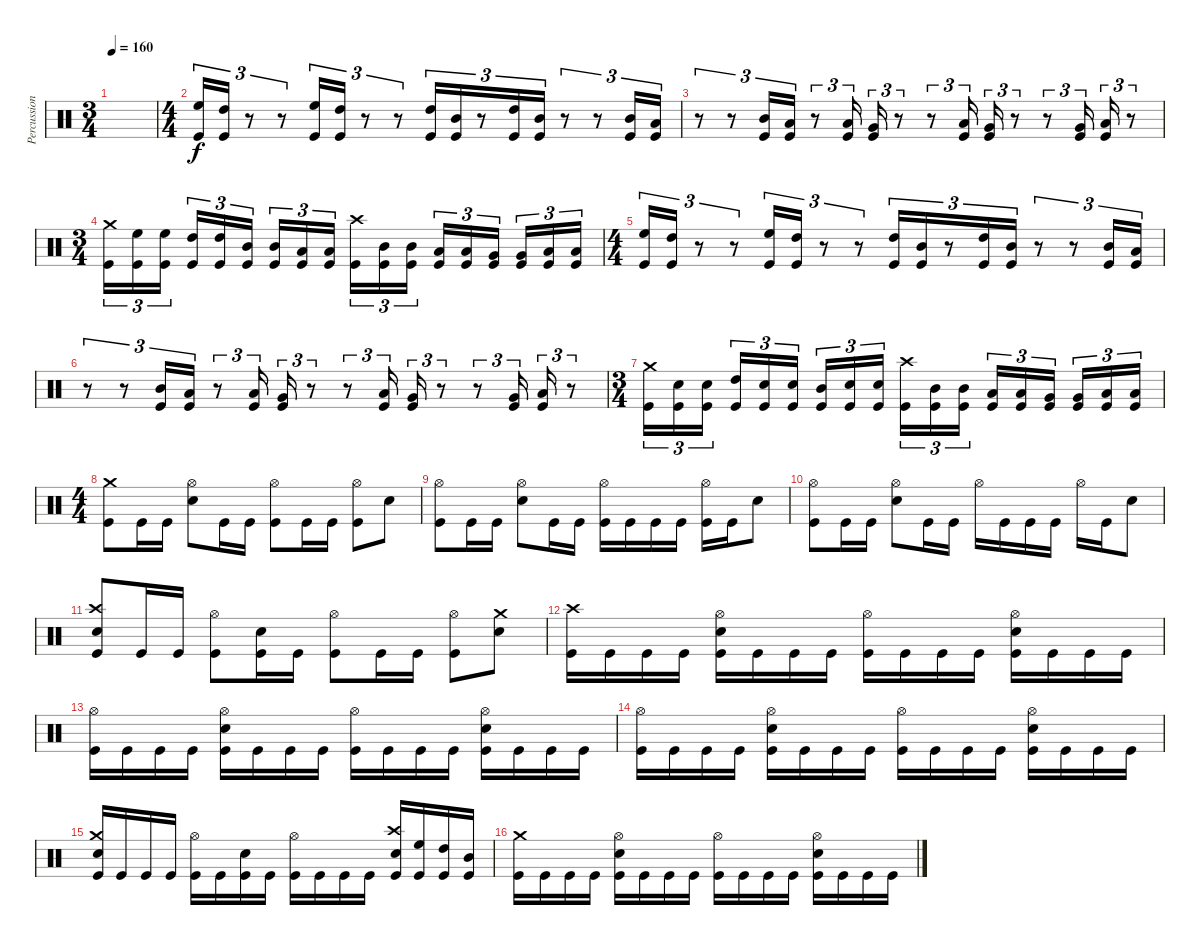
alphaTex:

\track ("Percussion" "Percussion") {instrument percussion}
\staff {score}
\articulation defaults
\ts (3 4)
\tempo 160
\clef neutral
\ks c
|
\ts (4 4)
("High Floor Tom (hit)" "Kick (hit)").16{tu (3 2)} ("High Tom (hit)" "Kick (hit)").16{tu (3 2)} r.8{tu (3 2)} r.8{tu (3 2)} ("High Floor Tom (hit)" "Kick (hit)").16{tu (3 2)} ("High Tom (hit)" "Kick (hit)").16{tu (3 2)} r.8{tu (3 2)} r.8{tu (3 2)} ("High Tom (hit)" "Kick (hit)").16{tu (3 2)} ("Mid Tom (hit)" "Kick (hit)").16{tu (3 2)} r.8{tu (3 2)} ("High Tom (hit)" "Kick (hit)").16{tu (3 2)} ("Mid Tom (hit)" "Kick (hit)").16{tu (3 2)} r.8{tu (3 2)} r.8{tu (3 2)} ("Mid Tom (hit)" "Kick (hit)").16{tu (3 2)} ("Low Tom (hit)" "Kick (hit)").16{tu (3 2)} |
r.8{tu (3 2)} r.8{tu (3 2)} ("Mid Tom (hit)" "Kick (hit)").16{tu (3 2)} ("Low Tom (hit)" "Kick (hit)").16{tu (3 2)} r.8{tu (3 2)} ("Low Tom (hit)" "Kick (hit)").16{tu (3 2)} ("Very Low Tom (hit)" "Kick (hit)").16{tu (3 2)} r.8{tu (3 2)} r.8{tu (3 2)} ("Low Tom (hit)" "Kick (hit)").16{tu (3 2)} ("Very Low Tom (hit)" "Kick (hit)").16{tu (3 2)} r.8{tu (3 2)} r.8{tu (3 2)} ("Very Low Tom (hit)" "Kick (hit)").16{tu (3 2)} ("Low Floor Tom (hit)" "Kick (hit)").16{tu (3 2)} r.8{tu (3 2)} |
\ts (3 4)
("Crash medium (hit)" "Kick (hit)").16{tu (3 2)} ("High Floor Tom (hit)" "Kick (hit)").16{tu (3 2)} ("High Floor Tom (hit)" "Kick (hit)").16{tu (3 2) beam splitsecondary} ("High Tom (hit)" "Kick (hit)").16{tu (3 2)} ("High Tom (hit)" "Kick (hit)").16{tu (3 2)} ("Mid Tom (hit)" "Kick (hit)").16{tu (3 2)} ("Mid Tom (hit)" "Kick (hit)").16{tu (3 2)} ("Low Tom (hit)" "Kick (hit)").16{tu (3 2)} ("Low Tom (hit)" "Kick (hit)").16{tu (3 2) beam splitsecondary} ("Crash high (hit)" "Kick (hit)").16{tu (3 2)} ("Mid Tom (hit)" "Kick (hit)").16{tu (3 2)} ("Mid Tom (hit)" "Kick (hit)").16{tu (3 2)} ("Low Tom (hit)" "Kick (hit)").16{tu (3 2)} ("Low Tom (hit)" "Kick (hit)").16{tu (3 2)} ("Very Low Tom (hit)" "Kick (hit)").16{tu (3 2) beam splitsecondary} ("Very Low Tom (hit)" "Kick (hit)").16{tu (3 2)} ("Low Floor Tom (hit)" "Kick (hit)").16{tu (3 2)} ("Low Floor Tom (hit)" "Kick (hit)").16{tu (3 2)} |
\ts (4 4)
("High Floor Tom (hit)" "Kick (hit)").16{tu (3 2)} ("High Tom (hit)" "Kick (hit)").16{tu (3 2)} r.8{tu (3 2)} r.8{tu (3 2)} ("High Floor Tom (hit)" "Kick (hit)").16{tu (3 2)} ("High Tom (hit)" "Kick (hit)").16{tu (3 2)} r.8{tu (3 2)} r.8{tu (3 2)} ("High Tom (hit)" "Kick (hit)").16{tu (3 2)} ("Mid Tom (hit)" "Kick (hit)").16{tu (3 2)} r.8{tu (3 2)} ("High Tom (hit)" "Kick (hit)").16{tu (3 2)} ("Mid Tom (hit)" "Kick (hit)").16{tu (3 2)} r.8{tu (3 2)} r.8{tu (3 2)} ("Mid Tom (hit)" "Kick (hit)").16{tu (3 2)} ("Low Tom (hit)" "Kick (hit)").16{tu (3 2)} |
r.8{tu (3 2)} r.8{tu (3 2)} ("Mid Tom (hit)" "Kick (hit)").16{tu (3 2)} ("Low Tom (hit)" "Kick (hit)").16{tu (3 2)} r.8{tu (3 2)} ("Low Tom (hit)" "Kick (hit)").16{tu (3 2)} ("Very Low Tom (hit)" "Kick (hit)").16{tu (3 2)} r.8{tu (3 2)} r.8{tu (3 2)} ("Low Tom (hit)" "Kick (hit)").16{tu (3 2)} ("Very Low Tom (hit)" "Kick (hit)").16{tu (3 2)} r.8{tu (3 2)} r.8{tu (3 2)} ("Very Low Tom (hit)" "Kick (hit)").16{tu (3 2)} ("Low Floor Tom (hit)" "Kick (hit)").16{tu (3 2)} r.8{tu (3 2)} |
\ts (3 4)
("Crash medium (hit)" "Kick (hit)").16{tu (3 2)} ("Snare (hit) 2" "Kick (hit)").16{tu (3 2)} ("Snare (hit) 2" "Kick (hit)").16{tu (3 2) beam splitsecondary} ("High Tom (hit)" "Kick (hit)").16{tu (3 2)} ("Snare (hit) 2" "Kick (hit)").16{tu (3 2)} ("Snare (hit) 2" "Kick (hit)").16{tu (3 2)} ("Mid Tom (hit)" "Kick (hit)").16{tu (3 2)} ("Snare (hit) 2" "Kick (hit)").16{tu (3 2)} ("Snare (hit) 2" "Kick (hit)").16{tu (3 2) beam splitsecondary} ("Crash high (hit)" "Kick (hit)").16{tu (3 2)} ("Mid Tom (hit)" "Kick (hit)").16{tu (3 2)} ("Mid Tom (hit)" "Kick (hit)").16{tu (3 2)} ("Low Tom (hit)" "Kick (hit)").16{tu (3 2)} ("Low Tom (hit)" "Kick (hit)").16{tu (3 2)} ("Very Low Tom (hit)" "Kick (hit)").16{tu (3 2) beam splitsecondary} ("Very Low Tom (hit)" "Kick (hit)").16{tu (3 2)} ("Low Floor Tom (hit)" "Kick (hit)").16{tu (3 2)} ("Low Floor Tom (hit)" "Kick (hit)").16{tu (3 2)} |
\ts (4 4)
("Crash medium (hit)" "Kick (hit)").8 "Kick (hit)".16 "Kick (hit)".16 ("Hi-Hat (open)" "Snare (hit) 2").8 "Kick (hit)".16 "Kick (hit)".16 ("Hi-Hat (open)" "Kick (hit)").8 "Kick (hit)".16 "Kick (hit)".16 ("Hi-Hat (open)" "Kick (hit)").8 "Snare (hit) 2".8 |
("Hi-Hat (open)" "Kick (hit)").8 "Kick (hit)".16 "Kick (hit)".16 ("Hi-Hat (open)" "Snare (hit) 2").8 "Kick (hit)".16 "Kick (hit)".16 ("Hi-Hat (open)" "Kick (hit)").16 "Kick (hit)".16 "Kick (hit)".16 "Kick (hit)".16 ("Hi-Hat (open)" "Kick (hit)").16 "Kick (hit)".16 "Snare (hit) 2".8 |
("Hi-Hat (open)" "Kick (hit)").8 "Kick (hit)".16 "Kick (hit)".16 ("Hi-Hat (open)" "Snare (hit) 2").8 "Kick (hit)".16 "Kick (hit)".16 "Hi-Hat (open)".16 "Kick (hit)".16 "Kick (hit)".16 "Kick (hit)".16 "Hi-Hat (open)".16 "Kick (hit)".16 "Snare (hit) 2".8 |
("Crash high (hit)" "Snare (hit) 2" "Kick (hit)").8 "Kick (hit)".16 "Kick (hit)".16 ("Hi-Hat (open)" "Kick (hit)").8 ("Snare (hit) 2" "Kick (hit)").16 "Kick (hit)".16 ("Hi-Hat (open)" "Kick (hit)").8 "Kick (hit)".16 "Kick (hit)".16 ("Hi-Hat (open)" "Kick (hit)").8 ("Crash medium (hit)" "Snare (hit) 2").8 |
("Crash high (hit)" "Kick (hit)").16 "Kick (hit)".16 "Kick (hit)".16 "Kick (hit)".16 ("Hi-Hat (open)" "Snare (hit) 2" "Kick (hit)").16 "Kick (hit)".16 "Kick (hit)".16 "Kick (hit)".16 ("Hi-Hat (open)" "Kick (hit)").16 "Kick (hit)".16 "Kick (hit)".16 "Kick (hit)".16 ("Hi-Hat (open)" "Snare (hit) 2" "Kick (hit)").16 "Kick (hit)".16 "Kick (hit)".16 "Kick (hit)".16 |
("Hi-Hat (open)" "Kick (hit)").16 "Kick (hit)".16 "Kick (hit)".16 "Kick (hit)".16 ("Hi-Hat (open)" "Snare (hit) 2" "Kick (hit)").16 "Kick (hit)".16 "Kick (hit)".16 "Kick (hit)".16 ("Hi-Hat (open)" "Kick (hit)").16 "Kick (hit)".16 "Kick (hit)".16 "Kick (hit)".16 ("Hi-Hat (open)" "Snare (hit) 2" "Kick (hit)").16 "Kick (hit)".16 "Kick (hit)".16 "Kick (hit)".16 |
("Hi-Hat (open)" "Kick (hit)").16 "Kick (hit)".16 "Kick (hit)".16 "Kick (hit)".16 ("Hi-Hat (open)" "Snare (hit) 2" "Kick (hit)").16 "Kick (hit)".16 "Kick (hit)".16 "Kick (hit)".16 ("Hi-Hat (open)" "Kick (hit)").16 "Kick (hit)".16 "Kick (hit)".16 "Kick (hit)".16 ("Hi-Hat (open)" "Snare (hit) 2" "Kick (hit)").16 "Kick (hit)".16 "Kick (hit)".16 "Kick (hit)".16 |
("Crash medium (hit)" "Snare (hit) 2" "Kick (hit)").16 "Kick (hit)".16 "Kick (hit)".16 "Kick (hit)".16 ("Hi-Hat (open)" "Kick (hit)").16 "Kick (hit)".16 ("Snare (hit) 2" "Kick (hit)").16 "Kick (hit)".16 ("Hi-Hat (open)" "Kick (hit)").16 "Kick (hit)".16 "Kick (hit)".16 "Kick (hit)".16 ("Crash high (hit)" "Snare (hit) 2" "Kick (hit)").16 ("High Floor Tom (hit)" "Kick (hit)").16 ("High Tom (hit)" "Kick (hit)").16 ("Mid Tom (hit)" "Kick (hit)").16 |
("Crash medium (hit)" "Kick (hit)").16 "Kick (hit)".16 "Kick (hit)".16 "Kick (hit)".16 ("Hi-Hat (open)" "Snare (hit) 2" "Kick (hit)").16 "Kick (hit)".16 "Kick (hit)".16 "Kick (hit)".16 ("Hi-Hat (open)" "Kick (hit)").16 "Kick (hit)".16 "Kick (hit)".16 "Kick (hit)".16 ("Hi-Hat (open)" "Snare (hit) 2" "Kick (hit)").16 "Kick (hit)".16 "Kick (hit)".16 "Kick (hit)".16
